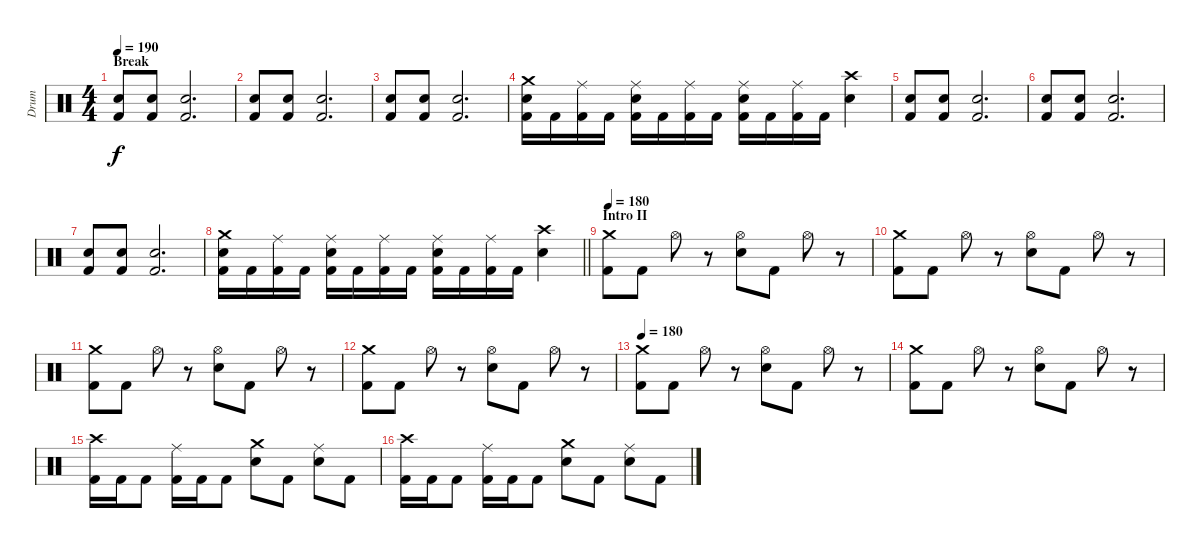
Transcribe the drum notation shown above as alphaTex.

\track ("Drum" "Drum") {instrument percussion}
\staff {score}
\articulation defaults
\ts (4 4)
\section ("" "Break")
\tempo 190
\clef neutral
\ks c
("Electric Snare (hit)" "Kick (hit) 2").8{dy f} ("Electric Snare (hit)" "Kick (hit) 2").8 ("Electric Snare (hit)" "Kick (hit) 2").2{d} |
("Electric Snare (hit)" "Kick (hit) 2").8 ("Electric Snare (hit)" "Kick (hit) 2").8 ("Electric Snare (hit)" "Kick (hit) 2").2{d} |
("Electric Snare (hit)" "Kick (hit) 2").8 ("Electric Snare (hit)" "Kick (hit) 2").8 ("Electric Snare (hit)" "Kick (hit) 2").2{d} |
("Crash medium (hit)" "Electric Snare (hit)" "Kick (hit) 2").16 "Kick (hit) 2".16 ("Ride (middle)" "Kick (hit) 2").16 "Kick (hit) 2".16 ("Ride (middle)" "Electric Snare (hit)" "Kick (hit) 2").16 "Kick (hit) 2".16 ("Ride (middle)" "Kick (hit) 2").16 "Kick (hit) 2".16 ("Ride (middle)" "Electric Snare (hit)" "Kick (hit) 2").16 "Kick (hit) 2".16 ("Ride (middle)" "Kick (hit) 2").16 "Kick (hit) 2".16 ("Crash high (hit)" "Electric Snare (hit)").4 |
("Electric Snare (hit)" "Kick (hit) 2").8 ("Electric Snare (hit)" "Kick (hit) 2").8 ("Electric Snare (hit)" "Kick (hit) 2").2{d} |
("Electric Snare (hit)" "Kick (hit) 2").8 ("Electric Snare (hit)" "Kick (hit) 2").8 ("Electric Snare (hit)" "Kick (hit) 2").2{d} |
("Electric Snare (hit)" "Kick (hit) 2").8 ("Electric Snare (hit)" "Kick (hit) 2").8 ("Electric Snare (hit)" "Kick (hit) 2").2{d} |
\barLineRight lightlight
("Crash medium (hit)" "Electric Snare (hit)" "Kick (hit) 2").16 "Kick (hit) 2".16 ("Ride (middle)" "Kick (hit) 2").16 "Kick (hit) 2".16 ("Ride (middle)" "Electric Snare (hit)" "Kick (hit) 2").16 "Kick (hit) 2".16 ("Ride (middle)" "Kick (hit) 2").16 "Kick (hit) 2".16 ("Ride (middle)" "Electric Snare (hit)" "Kick (hit) 2").16 "Kick (hit) 2".16 ("Ride (middle)" "Kick (hit) 2").16 "Kick (hit) 2".16 ("Crash high (hit)" "Electric Snare (hit)").4 |
\section ("" "Intro II")
\tempo 180
("Crash medium (hit)" "Kick (hit) 2").8 "Kick (hit) 2".8 "Hi-Hat (open)".8 r.8 ("Hi-Hat (open)" "Electric Snare (hit)").8 "Kick (hit) 2".8 "Hi-Hat (open)".8 r.8 |
("Crash medium (hit)" "Kick (hit) 2").8 "Kick (hit) 2".8 "Hi-Hat (open)".8 r.8 ("Hi-Hat (open)" "Electric Snare (hit)").8 "Kick (hit) 2".8 "Hi-Hat (open)".8 r.8 |
("Crash medium (hit)" "Kick (hit) 2").8 "Kick (hit) 2".8 "Hi-Hat (open)".8 r.8 ("Hi-Hat (open)" "Electric Snare (hit)").8 "Kick (hit) 2".8 "Hi-Hat (open)".8 r.8 |
("Crash medium (hit)" "Kick (hit) 2").8 "Kick (hit) 2".8 "Hi-Hat (open)".8 r.8 ("Hi-Hat (open)" "Electric Snare (hit)").8 "Kick (hit) 2".8 "Hi-Hat (open)".8 r.8 |
\tempo 180
("Crash medium (hit)" "Kick (hit) 2").8 "Kick (hit) 2".8 "Hi-Hat (open)".8 r.8 ("Hi-Hat (open)" "Electric Snare (hit)").8 "Kick (hit) 2".8 "Hi-Hat (open)".8 r.8 |
("Crash medium (hit)" "Kick (hit) 2").8 "Kick (hit) 2".8 "Hi-Hat (open)".8 r.8 ("Hi-Hat (open)" "Electric Snare (hit)").8 "Kick (hit) 2".8 "Hi-Hat (open)".8 r.8 |
("Crash high (hit)" "Kick (hit) 2").16 "Kick (hit) 2".16 "Kick (hit) 2".8 ("Ride (middle)" "Kick (hit) 2").16 "Kick (hit) 2".16 "Kick (hit) 2".8 ("Crash medium (hit)" "Electric Snare (hit)").8 "Kick (hit) 2".8 ("Ride (middle)" "Electric Snare (hit)").8 "Kick (hit) 2".8 |
("Crash high (hit)" "Kick (hit) 2").16 "Kick (hit) 2".16 "Kick (hit) 2".8 ("Ride (middle)" "Kick (hit) 2").16 "Kick (hit) 2".16 "Kick (hit) 2".8 ("Crash medium (hit)" "Electric Snare (hit)").8 "Kick (hit) 2".8 ("Ride (middle)" "Electric Snare (hit)").8 "Kick (hit) 2".8
